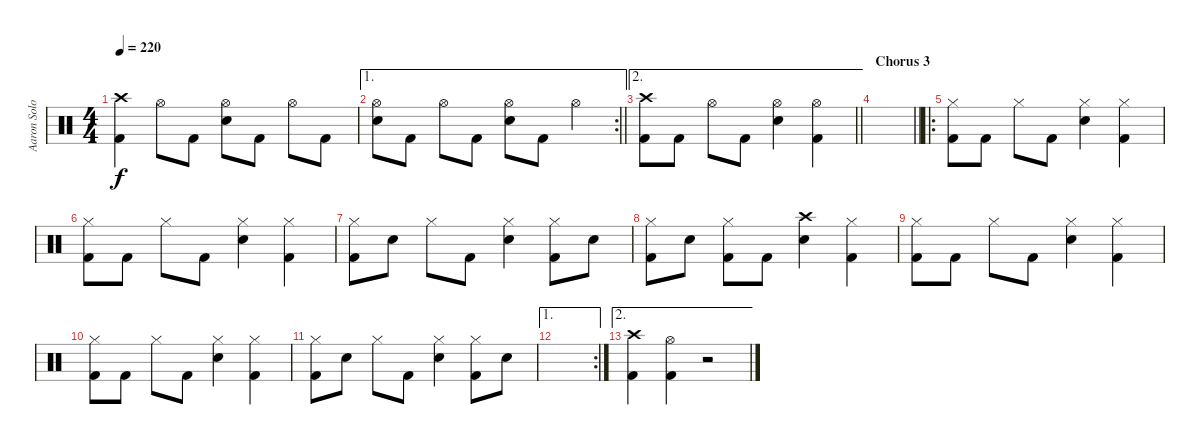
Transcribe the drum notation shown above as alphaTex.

\track ("Aaron Solowoniuk" "Aaron Solo") {instrument percussion}
\staff {score}
\articulation defaults
\ts (4 4)
\tempo 220
\clef neutral
\ks c
("Crash high (hit)" "Kick (hit) 2").4{dy f} "Hi-Hat (open)".8 "Kick (hit) 2".8 ("Hi-Hat (open)" "Snare (hit) 2").8 "Kick (hit) 2".8 "Hi-Hat (open)".8 "Kick (hit) 2".8 |
\ae 1
\rc 2
\barLineRight lightlight
("Hi-Hat (open)" "Snare (hit) 2").8 "Kick (hit) 2".8 "Hi-Hat (open)".8 "Kick (hit) 2".8 ("Hi-Hat (open)" "Snare (hit) 2").8 "Kick (hit) 2".8 "Hi-Hat (open)".4 |
\ae 2
\barLineRight lightlight
("Crash high (hit)" "Kick (hit) 2").8 "Kick (hit) 2".8 "Hi-Hat (open)".8 "Kick (hit) 2".8 ("Hi-Hat (open)" "Snare (hit) 2").4 ("Hi-Hat (open)" "Kick (hit) 2").4 |
\section ("" "Chorus 3")
\barLineRight lightlight
|
\ro
("Hi-Hat (closed)" "Kick (hit) 2").8 "Kick (hit) 2".8 "Hi-Hat (closed)".8 "Kick (hit) 2".8 ("Hi-Hat (closed)" "Snare (hit) 2").4 ("Hi-Hat (closed)" "Kick (hit) 2").4 |
("Hi-Hat (closed)" "Kick (hit) 2").8 "Kick (hit) 2".8 "Hi-Hat (closed)".8 "Kick (hit) 2".8 ("Hi-Hat (closed)" "Snare (hit) 2").4 ("Hi-Hat (closed)" "Kick (hit) 2").4 |
("Hi-Hat (closed)" "Kick (hit) 2").8 "Snare (hit) 2".8 "Hi-Hat (closed)".8 "Kick (hit) 2".8 ("Hi-Hat (closed)" "Snare (hit) 2").4 ("Hi-Hat (closed)" "Kick (hit) 2").8 "Snare (hit) 2".8 |
("Hi-Hat (closed)" "Kick (hit) 2").8 "Snare (hit) 2".8 ("Hi-Hat (closed)" "Kick (hit) 2").8 "Kick (hit) 2".8 ("Crash high (hit)" "Snare (hit) 2").4 ("Hi-Hat (closed)" "Kick (hit) 2").4 |
("Hi-Hat (closed)" "Kick (hit) 2").8 "Kick (hit) 2".8 "Hi-Hat (closed)".8 "Kick (hit) 2".8 ("Hi-Hat (closed)" "Snare (hit) 2").4 ("Hi-Hat (closed)" "Kick (hit) 2").4 |
("Hi-Hat (closed)" "Kick (hit) 2").8 "Kick (hit) 2".8 "Hi-Hat (closed)".8 "Kick (hit) 2".8 ("Hi-Hat (closed)" "Snare (hit) 2").4 ("Hi-Hat (closed)" "Kick (hit) 2").4 |
("Hi-Hat (closed)" "Kick (hit) 2").8 "Snare (hit) 2".8 "Hi-Hat (closed)".8 "Kick (hit) 2".8 ("Hi-Hat (closed)" "Snare (hit) 2").4 ("Hi-Hat (closed)" "Kick (hit) 2").8 "Snare (hit) 2".8 |
\ae 1
\rc 2
|
\ae 2
("Crash high (hit)" "Kick (hit) 2").4 ("Hi-Hat (open)" "Kick (hit) 2").4 r.2
